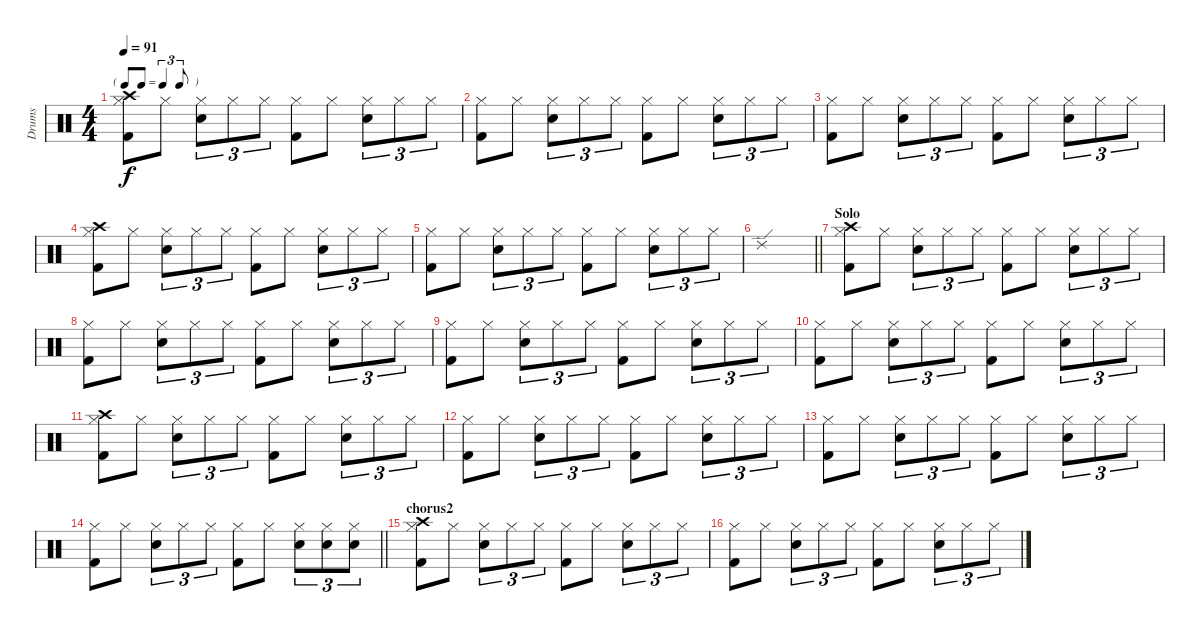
\track ("Drums" "Drums") {instrument percussion}
\staff {score}
\articulation defaults
\ts (4 4)
\tf triplet8th
\tempo 91
\clef neutral
\ks c
("Crash high (hit)" "Hi-Hat (closed)" "Kick (hit) 2").8{dy f} "Hi-Hat (closed)".8 ("Hi-Hat (closed)" "Snare (hit) 2").8{tu (3 2)} "Hi-Hat (closed)".8{tu (3 2)} "Hi-Hat (closed)".8{tu (3 2)} ("Hi-Hat (closed)" "Kick (hit) 2").8 "Hi-Hat (closed)".8 ("Hi-Hat (closed)" "Snare (hit) 2").8{tu (3 2)} "Hi-Hat (closed)".8{tu (3 2)} "Hi-Hat (closed)".8{tu (3 2)} |
("Hi-Hat (closed)" "Kick (hit) 2").8 "Hi-Hat (closed)".8 ("Hi-Hat (closed)" "Snare (hit) 2").8{tu (3 2)} "Hi-Hat (closed)".8{tu (3 2)} "Hi-Hat (closed)".8{tu (3 2)} ("Hi-Hat (closed)" "Kick (hit) 2").8 "Hi-Hat (closed)".8 ("Hi-Hat (closed)" "Snare (hit) 2").8{tu (3 2)} "Hi-Hat (closed)".8{tu (3 2)} "Hi-Hat (closed)".8{tu (3 2)} |
("Hi-Hat (closed)" "Kick (hit) 2").8 "Hi-Hat (closed)".8 ("Hi-Hat (closed)" "Snare (hit) 2").8{tu (3 2)} "Hi-Hat (closed)".8{tu (3 2)} "Hi-Hat (closed)".8{tu (3 2)} ("Hi-Hat (closed)" "Kick (hit) 2").8 "Hi-Hat (closed)".8 ("Hi-Hat (closed)" "Snare (hit) 2").8{tu (3 2)} "Hi-Hat (closed)".8{tu (3 2)} "Hi-Hat (closed)".8{tu (3 2)} |
("Crash high (hit)" "Hi-Hat (closed)" "Kick (hit) 2").8 "Hi-Hat (closed)".8 ("Hi-Hat (closed)" "Snare (hit) 2").8{tu (3 2)} "Hi-Hat (closed)".8{tu (3 2)} "Hi-Hat (closed)".8{tu (3 2)} ("Hi-Hat (closed)" "Kick (hit) 2").8 "Hi-Hat (closed)".8 ("Hi-Hat (closed)" "Snare (hit) 2").8{tu (3 2)} "Hi-Hat (closed)".8{tu (3 2)} "Hi-Hat (closed)".8{tu (3 2)} |
("Hi-Hat (closed)" "Kick (hit) 2").8 "Hi-Hat (closed)".8 ("Hi-Hat (closed)" "Snare (hit) 2").8{tu (3 2)} "Hi-Hat (closed)".8{tu (3 2)} "Hi-Hat (closed)".8{tu (3 2)} ("Hi-Hat (closed)" "Kick (hit) 2").8 "Hi-Hat (closed)".8 ("Hi-Hat (closed)" "Snare (hit) 2").8{tu (3 2)} "Hi-Hat (closed)".8{tu (3 2)} "Hi-Hat (closed)".8{tu (3 2)} |
\barLineRight lightlight "Ride (edge) 2".1
|
\section ("" "Solo")
("Crash high (hit)" "Hi-Hat (closed)" "Kick (hit) 2").8 "Hi-Hat (closed)".8 ("Hi-Hat (closed)" "Snare (hit) 2").8{tu (3 2)} "Hi-Hat (closed)".8{tu (3 2)} "Hi-Hat (closed)".8{tu (3 2)} ("Hi-Hat (closed)" "Kick (hit) 2").8 "Hi-Hat (closed)".8 ("Hi-Hat (closed)" "Snare (hit) 2").8{tu (3 2)} "Hi-Hat (closed)".8{tu (3 2)} "Hi-Hat (closed)".8{tu (3 2)} |
("Hi-Hat (closed)" "Kick (hit) 2").8 "Hi-Hat (closed)".8 ("Hi-Hat (closed)" "Snare (hit) 2").8{tu (3 2)} "Hi-Hat (closed)".8{tu (3 2)} "Hi-Hat (closed)".8{tu (3 2)} ("Hi-Hat (closed)" "Kick (hit) 2").8 "Hi-Hat (closed)".8 ("Hi-Hat (closed)" "Snare (hit) 2").8{tu (3 2)} "Hi-Hat (closed)".8{tu (3 2)} "Hi-Hat (closed)".8{tu (3 2)} |
("Hi-Hat (closed)" "Kick (hit) 2").8 "Hi-Hat (closed)".8 ("Hi-Hat (closed)" "Snare (hit) 2").8{tu (3 2)} "Hi-Hat (closed)".8{tu (3 2)} "Hi-Hat (closed)".8{tu (3 2)} ("Hi-Hat (closed)" "Kick (hit) 2").8 "Hi-Hat (closed)".8 ("Hi-Hat (closed)" "Snare (hit) 2").8{tu (3 2)} "Hi-Hat (closed)".8{tu (3 2)} "Hi-Hat (closed)".8{tu (3 2)} |
("Hi-Hat (closed)" "Kick (hit) 2").8 "Hi-Hat (closed)".8 ("Hi-Hat (closed)" "Snare (hit) 2").8{tu (3 2)} "Hi-Hat (closed)".8{tu (3 2)} "Hi-Hat (closed)".8{tu (3 2)} ("Hi-Hat (closed)" "Kick (hit) 2").8 "Hi-Hat (closed)".8 ("Hi-Hat (closed)" "Snare (hit) 2").8{tu (3 2)} "Hi-Hat (closed)".8{tu (3 2)} "Hi-Hat (closed)".8{tu (3 2)} |
("Crash high (hit)" "Hi-Hat (closed)" "Kick (hit) 2").8 "Hi-Hat (closed)".8 ("Hi-Hat (closed)" "Snare (hit) 2").8{tu (3 2)} "Hi-Hat (closed)".8{tu (3 2)} "Hi-Hat (closed)".8{tu (3 2)} ("Hi-Hat (closed)" "Kick (hit) 2").8 "Hi-Hat (closed)".8 ("Hi-Hat (closed)" "Snare (hit) 2").8{tu (3 2)} "Hi-Hat (closed)".8{tu (3 2)} "Hi-Hat (closed)".8{tu (3 2)} |
("Hi-Hat (closed)" "Kick (hit) 2").8 "Hi-Hat (closed)".8 ("Hi-Hat (closed)" "Snare (hit) 2").8{tu (3 2)} "Hi-Hat (closed)".8{tu (3 2)} "Hi-Hat (closed)".8{tu (3 2)} ("Hi-Hat (closed)" "Kick (hit) 2").8 "Hi-Hat (closed)".8 ("Hi-Hat (closed)" "Snare (hit) 2").8{tu (3 2)} "Hi-Hat (closed)".8{tu (3 2)} "Hi-Hat (closed)".8{tu (3 2)} |
("Hi-Hat (closed)" "Kick (hit) 2").8 "Hi-Hat (closed)".8 ("Hi-Hat (closed)" "Snare (hit) 2").8{tu (3 2)} "Hi-Hat (closed)".8{tu (3 2)} "Hi-Hat (closed)".8{tu (3 2)} ("Hi-Hat (closed)" "Kick (hit) 2").8 "Hi-Hat (closed)".8 ("Hi-Hat (closed)" "Snare (hit) 2").8{tu (3 2)} "Hi-Hat (closed)".8{tu (3 2)} "Hi-Hat (closed)".8{tu (3 2)} |
\barLineRight lightlight
("Hi-Hat (closed)" "Kick (hit) 2").8 "Hi-Hat (closed)".8 ("Hi-Hat (closed)" "Snare (hit) 2").8{tu (3 2)} "Hi-Hat (closed)".8{tu (3 2)} "Hi-Hat (closed)".8{tu (3 2)} ("Hi-Hat (closed)" "Kick (hit) 2").8 "Hi-Hat (closed)".8 ("Hi-Hat (closed)" "Snare (hit) 2").8{tu (3 2)} ("Hi-Hat (closed)" "Snare (hit) 2").8{tu (3 2)} ("Hi-Hat (closed)" "Snare (hit) 2").8{tu (3 2)} |
\section ("" "chorus2")
("Crash high (hit)" "Hi-Hat (closed)" "Kick (hit) 2").8 "Hi-Hat (closed)".8 ("Hi-Hat (closed)" "Snare (hit) 2").8{tu (3 2)} "Hi-Hat (closed)".8{tu (3 2)} "Hi-Hat (closed)".8{tu (3 2)} ("Hi-Hat (closed)" "Kick (hit) 2").8 "Hi-Hat (closed)".8 ("Hi-Hat (closed)" "Snare (hit) 2").8{tu (3 2)} "Hi-Hat (closed)".8{tu (3 2)} "Hi-Hat (closed)".8{tu (3 2)} |
("Hi-Hat (closed)" "Kick (hit) 2").8 "Hi-Hat (closed)".8 ("Hi-Hat (closed)" "Snare (hit) 2").8{tu (3 2)} "Hi-Hat (closed)".8{tu (3 2)} "Hi-Hat (closed)".8{tu (3 2)} ("Hi-Hat (closed)" "Kick (hit) 2").8 "Hi-Hat (closed)".8 ("Hi-Hat (closed)" "Snare (hit) 2").8{tu (3 2)} "Hi-Hat (closed)".8{tu (3 2)} "Hi-Hat (closed)".8{tu (3 2)}
